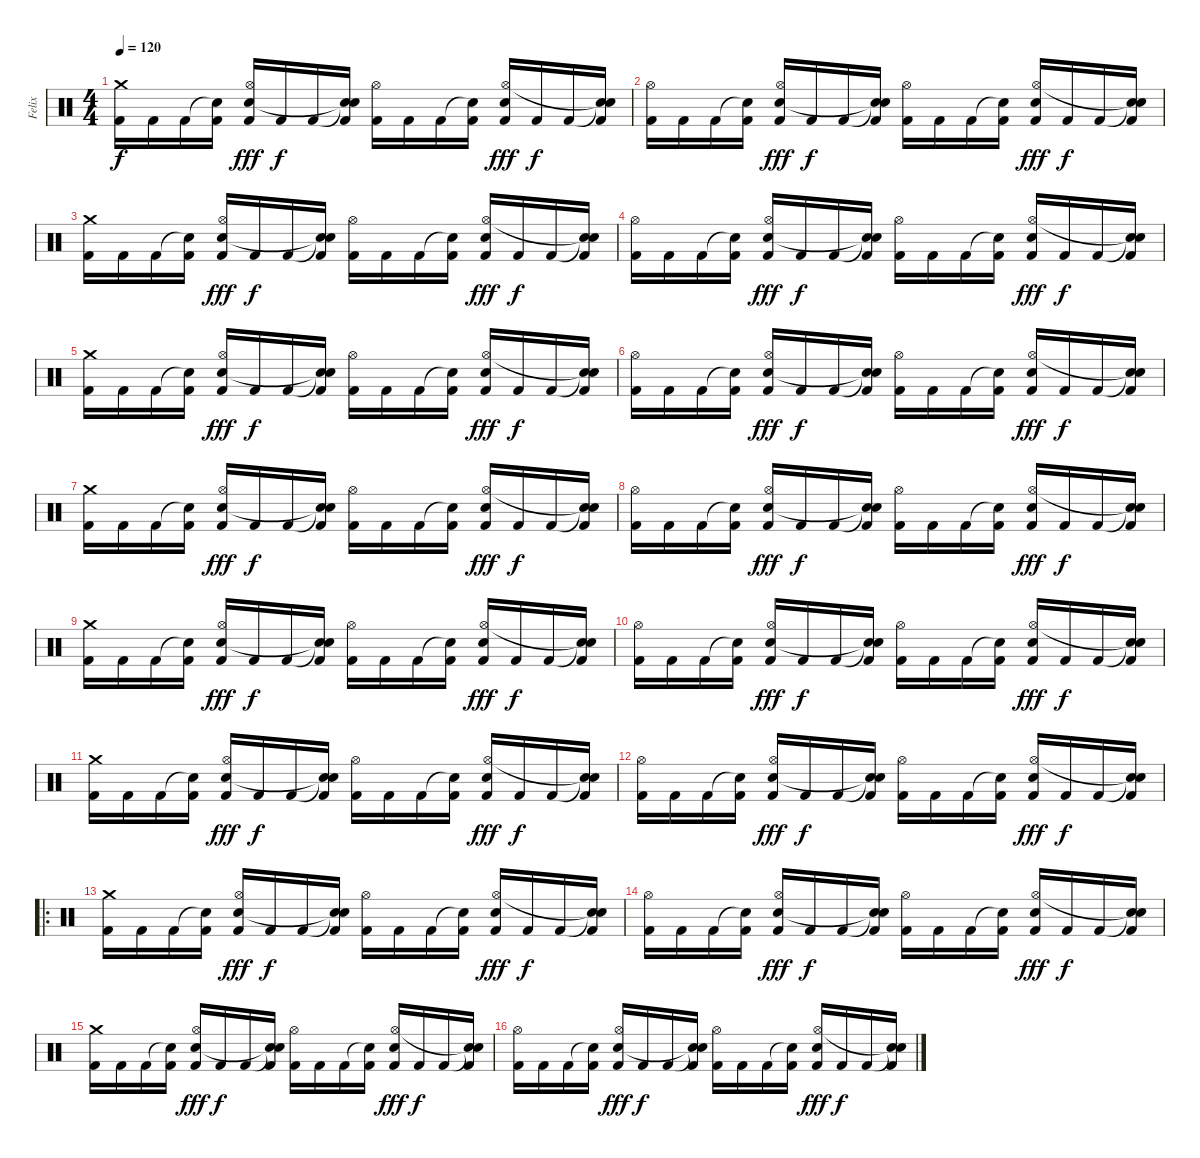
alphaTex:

\track ("Felix" "Felix") {instrument percussion}
\staff {score}
\articulation defaults
\ts (4 4)
\tempo 120
\clef neutral
\ks c
("Crash medium (hit)" "Kick (hit) 2").16{dy f} "Kick (hit) 2".16 "Kick (hit) 2".16 ("Snare (hit)"{t} "Kick (hit) 2").16 ("Hi-Hat (open)" "Electric Snare (hit)" "Kick (hit) 2").16{dy fff} "Kick (hit) 2".16{dy f} "Kick (hit) 2".16 ("Snare (hit)"{t} "Snare (hit)"{t} "Kick (hit) 2").16 ("Hi-Hat (open)" "Kick (hit) 2").16 "Kick (hit) 2".16 "Kick (hit) 2".16 ("Snare (hit)"{t} "Kick (hit) 2").16 ("Electric Snare (hit)" "Hi-Hat (open)" "Kick (hit) 2").16{dy fff} "Kick (hit) 2".16{dy f} "Kick (hit) 2".16 ("Snare (hit)"{t} "Snare (hit)"{t} "Kick (hit) 2").16 |
("Hi-Hat (open)" "Kick (hit) 2").16 "Kick (hit) 2".16 "Kick (hit) 2".16 ("Snare (hit)"{t} "Kick (hit) 2").16 ("Hi-Hat (open)" "Electric Snare (hit)" "Kick (hit) 2").16{dy fff} "Kick (hit) 2".16{dy f} "Kick (hit) 2".16 ("Snare (hit)"{t} "Snare (hit)"{t} "Kick (hit) 2").16 ("Hi-Hat (open)" "Kick (hit) 2").16 "Kick (hit) 2".16 "Kick (hit) 2".16 ("Snare (hit)"{t} "Kick (hit) 2").16 ("Electric Snare (hit)" "Hi-Hat (open)" "Kick (hit) 2").16{dy fff} "Kick (hit) 2".16{dy f} "Kick (hit) 2".16 ("Snare (hit)"{t} "Snare (hit)"{t} "Kick (hit) 2").16 |
("Crash medium (hit)" "Kick (hit) 2").16 "Kick (hit) 2".16 "Kick (hit) 2".16 ("Snare (hit)"{t} "Kick (hit) 2").16 ("Hi-Hat (open)" "Electric Snare (hit)" "Kick (hit) 2").16{dy fff} "Kick (hit) 2".16{dy f} "Kick (hit) 2".16 ("Snare (hit)"{t} "Snare (hit)"{t} "Kick (hit) 2").16 ("Hi-Hat (open)" "Kick (hit) 2").16 "Kick (hit) 2".16 "Kick (hit) 2".16 ("Snare (hit)"{t} "Kick (hit) 2").16 ("Electric Snare (hit)" "Hi-Hat (open)" "Kick (hit) 2").16{dy fff} "Kick (hit) 2".16{dy f} "Kick (hit) 2".16 ("Snare (hit)"{t} "Snare (hit)"{t} "Kick (hit) 2").16 |
("Hi-Hat (open)" "Kick (hit) 2").16 "Kick (hit) 2".16 "Kick (hit) 2".16 ("Snare (hit)"{t} "Kick (hit) 2").16 ("Hi-Hat (open)" "Electric Snare (hit)" "Kick (hit) 2").16{dy fff} "Kick (hit) 2".16{dy f} "Kick (hit) 2".16 ("Snare (hit)"{t} "Snare (hit)"{t} "Kick (hit) 2").16 ("Hi-Hat (open)" "Kick (hit) 2").16 "Kick (hit) 2".16 "Kick (hit) 2".16 ("Snare (hit)"{t} "Kick (hit) 2").16 ("Electric Snare (hit)" "Hi-Hat (open)" "Kick (hit) 2").16{dy fff} "Kick (hit) 2".16{dy f} "Kick (hit) 2".16 ("Snare (hit)"{t} "Snare (hit)"{t} "Kick (hit) 2").16 |
("Crash medium (hit)" "Kick (hit) 2").16 "Kick (hit) 2".16 "Kick (hit) 2".16 ("Snare (hit)"{t} "Kick (hit) 2").16 ("Hi-Hat (open)" "Electric Snare (hit)" "Kick (hit) 2").16{dy fff} "Kick (hit) 2".16{dy f} "Kick (hit) 2".16 ("Snare (hit)"{t} "Snare (hit)"{t} "Kick (hit) 2").16 ("Hi-Hat (open)" "Kick (hit) 2").16 "Kick (hit) 2".16 "Kick (hit) 2".16 ("Snare (hit)"{t} "Kick (hit) 2").16 ("Electric Snare (hit)" "Hi-Hat (open)" "Kick (hit) 2").16{dy fff} "Kick (hit) 2".16{dy f} "Kick (hit) 2".16 ("Snare (hit)"{t} "Snare (hit)"{t} "Kick (hit) 2").16 |
("Hi-Hat (open)" "Kick (hit) 2").16 "Kick (hit) 2".16 "Kick (hit) 2".16 ("Snare (hit)"{t} "Kick (hit) 2").16 ("Hi-Hat (open)" "Electric Snare (hit)" "Kick (hit) 2").16{dy fff} "Kick (hit) 2".16{dy f} "Kick (hit) 2".16 ("Snare (hit)"{t} "Snare (hit)"{t} "Kick (hit) 2").16 ("Hi-Hat (open)" "Kick (hit) 2").16 "Kick (hit) 2".16 "Kick (hit) 2".16 ("Snare (hit)"{t} "Kick (hit) 2").16 ("Electric Snare (hit)" "Hi-Hat (open)" "Kick (hit) 2").16{dy fff} "Kick (hit) 2".16{dy f} "Kick (hit) 2".16 ("Snare (hit)"{t} "Snare (hit)"{t} "Kick (hit) 2").16 |
("Crash medium (hit)" "Kick (hit) 2").16 "Kick (hit) 2".16 "Kick (hit) 2".16 ("Snare (hit)"{t} "Kick (hit) 2").16 ("Hi-Hat (open)" "Electric Snare (hit)" "Kick (hit) 2").16{dy fff} "Kick (hit) 2".16{dy f} "Kick (hit) 2".16 ("Snare (hit)"{t} "Snare (hit)"{t} "Kick (hit) 2").16 ("Hi-Hat (open)" "Kick (hit) 2").16 "Kick (hit) 2".16 "Kick (hit) 2".16 ("Snare (hit)"{t} "Kick (hit) 2").16 ("Electric Snare (hit)" "Hi-Hat (open)" "Kick (hit) 2").16{dy fff} "Kick (hit) 2".16{dy f} "Kick (hit) 2".16 ("Snare (hit)"{t} "Snare (hit)"{t} "Kick (hit) 2").16 |
("Hi-Hat (open)" "Kick (hit) 2").16 "Kick (hit) 2".16 "Kick (hit) 2".16 ("Snare (hit)"{t} "Kick (hit) 2").16 ("Hi-Hat (open)" "Electric Snare (hit)" "Kick (hit) 2").16{dy fff} "Kick (hit) 2".16{dy f} "Kick (hit) 2".16 ("Snare (hit)"{t} "Snare (hit)"{t} "Kick (hit) 2").16 ("Hi-Hat (open)" "Kick (hit) 2").16 "Kick (hit) 2".16 "Kick (hit) 2".16 ("Snare (hit)"{t} "Kick (hit) 2").16 ("Electric Snare (hit)" "Hi-Hat (open)" "Kick (hit) 2").16{dy fff} "Kick (hit) 2".16{dy f} "Kick (hit) 2".16 ("Snare (hit)"{t} "Snare (hit)"{t} "Kick (hit) 2").16 |
("Crash medium (hit)" "Kick (hit) 2").16 "Kick (hit) 2".16 "Kick (hit) 2".16 ("Snare (hit)"{t} "Kick (hit) 2").16 ("Hi-Hat (open)" "Electric Snare (hit)" "Kick (hit) 2").16{dy fff} "Kick (hit) 2".16{dy f} "Kick (hit) 2".16 ("Snare (hit)"{t} "Snare (hit)"{t} "Kick (hit) 2").16 ("Hi-Hat (open)" "Kick (hit) 2").16 "Kick (hit) 2".16 "Kick (hit) 2".16 ("Snare (hit)"{t} "Kick (hit) 2").16 ("Electric Snare (hit)" "Hi-Hat (open)" "Kick (hit) 2").16{dy fff} "Kick (hit) 2".16{dy f} "Kick (hit) 2".16 ("Snare (hit)"{t} "Snare (hit)"{t} "Kick (hit) 2").16 |
("Hi-Hat (open)" "Kick (hit) 2").16 "Kick (hit) 2".16 "Kick (hit) 2".16 ("Snare (hit)"{t} "Kick (hit) 2").16 ("Hi-Hat (open)" "Electric Snare (hit)" "Kick (hit) 2").16{dy fff} "Kick (hit) 2".16{dy f} "Kick (hit) 2".16 ("Snare (hit)"{t} "Snare (hit)"{t} "Kick (hit) 2").16 ("Hi-Hat (open)" "Kick (hit) 2").16 "Kick (hit) 2".16 "Kick (hit) 2".16 ("Snare (hit)"{t} "Kick (hit) 2").16 ("Electric Snare (hit)" "Hi-Hat (open)" "Kick (hit) 2").16{dy fff} "Kick (hit) 2".16{dy f} "Kick (hit) 2".16 ("Snare (hit)"{t} "Snare (hit)"{t} "Kick (hit) 2").16 |
("Crash medium (hit)" "Kick (hit) 2").16 "Kick (hit) 2".16 "Kick (hit) 2".16 ("Snare (hit)"{t} "Kick (hit) 2").16 ("Hi-Hat (open)" "Electric Snare (hit)" "Kick (hit) 2").16{dy fff} "Kick (hit) 2".16{dy f} "Kick (hit) 2".16 ("Snare (hit)"{t} "Snare (hit)"{t} "Kick (hit) 2").16 ("Hi-Hat (open)" "Kick (hit) 2").16 "Kick (hit) 2".16 "Kick (hit) 2".16 ("Snare (hit)"{t} "Kick (hit) 2").16 ("Electric Snare (hit)" "Hi-Hat (open)" "Kick (hit) 2").16{dy fff} "Kick (hit) 2".16{dy f} "Kick (hit) 2".16 ("Snare (hit)"{t} "Snare (hit)"{t} "Kick (hit) 2").16 |
("Hi-Hat (open)" "Kick (hit) 2").16 "Kick (hit) 2".16 "Kick (hit) 2".16 ("Snare (hit)"{t} "Kick (hit) 2").16 ("Hi-Hat (open)" "Electric Snare (hit)" "Kick (hit) 2").16{dy fff} "Kick (hit) 2".16{dy f} "Kick (hit) 2".16 ("Snare (hit)"{t} "Snare (hit)"{t} "Kick (hit) 2").16 ("Hi-Hat (open)" "Kick (hit) 2").16 "Kick (hit) 2".16 "Kick (hit) 2".16 ("Snare (hit)"{t} "Kick (hit) 2").16 ("Electric Snare (hit)" "Hi-Hat (open)" "Kick (hit) 2").16{dy fff} "Kick (hit) 2".16{dy f} "Kick (hit) 2".16 ("Snare (hit)"{t} "Snare (hit)"{t} "Kick (hit) 2").16 |
\ro
("Crash medium (hit)" "Kick (hit) 2").16 "Kick (hit) 2".16 "Kick (hit) 2".16 ("Snare (hit)"{t} "Kick (hit) 2").16 ("Hi-Hat (open)" "Electric Snare (hit)" "Kick (hit) 2").16{dy fff} "Kick (hit) 2".16{dy f} "Kick (hit) 2".16 ("Snare (hit)"{t} "Snare (hit)"{t} "Kick (hit) 2").16 ("Hi-Hat (open)" "Kick (hit) 2").16 "Kick (hit) 2".16 "Kick (hit) 2".16 ("Snare (hit)"{t} "Kick (hit) 2").16 ("Electric Snare (hit)" "Hi-Hat (open)" "Kick (hit) 2").16{dy fff} "Kick (hit) 2".16{dy f} "Kick (hit) 2".16 ("Snare (hit)"{t} "Snare (hit)"{t} "Kick (hit) 2").16 |
("Hi-Hat (open)" "Kick (hit) 2").16 "Kick (hit) 2".16 "Kick (hit) 2".16 ("Snare (hit)"{t} "Kick (hit) 2").16 ("Hi-Hat (open)" "Electric Snare (hit)" "Kick (hit) 2").16{dy fff} "Kick (hit) 2".16{dy f} "Kick (hit) 2".16 ("Snare (hit)"{t} "Snare (hit)"{t} "Kick (hit) 2").16 ("Hi-Hat (open)" "Kick (hit) 2").16 "Kick (hit) 2".16 "Kick (hit) 2".16 ("Snare (hit)"{t} "Kick (hit) 2").16 ("Electric Snare (hit)" "Hi-Hat (open)" "Kick (hit) 2").16{dy fff} "Kick (hit) 2".16{dy f} "Kick (hit) 2".16 ("Snare (hit)"{t} "Snare (hit)"{t} "Kick (hit) 2").16 |
("Crash medium (hit)" "Kick (hit) 2").16 "Kick (hit) 2".16 "Kick (hit) 2".16 ("Snare (hit)"{t} "Kick (hit) 2").16 ("Hi-Hat (open)" "Electric Snare (hit)" "Kick (hit) 2").16{dy fff} "Kick (hit) 2".16{dy f} "Kick (hit) 2".16 ("Snare (hit)"{t} "Snare (hit)"{t} "Kick (hit) 2").16 ("Hi-Hat (open)" "Kick (hit) 2").16 "Kick (hit) 2".16 "Kick (hit) 2".16 ("Snare (hit)"{t} "Kick (hit) 2").16 ("Electric Snare (hit)" "Hi-Hat (open)" "Kick (hit) 2").16{dy fff} "Kick (hit) 2".16{dy f} "Kick (hit) 2".16 ("Snare (hit)"{t} "Snare (hit)"{t} "Kick (hit) 2").16 |
("Hi-Hat (open)" "Kick (hit) 2").16 "Kick (hit) 2".16 "Kick (hit) 2".16 ("Snare (hit)"{t} "Kick (hit) 2").16 ("Hi-Hat (open)" "Electric Snare (hit)" "Kick (hit) 2").16{dy fff} "Kick (hit) 2".16{dy f} "Kick (hit) 2".16 ("Snare (hit)"{t} "Snare (hit)"{t} "Kick (hit) 2").16 ("Hi-Hat (open)" "Kick (hit) 2").16 "Kick (hit) 2".16 "Kick (hit) 2".16 ("Snare (hit)"{t} "Kick (hit) 2").16 ("Electric Snare (hit)" "Hi-Hat (open)" "Kick (hit) 2").16{dy fff} "Kick (hit) 2".16{dy f} "Kick (hit) 2".16 ("Snare (hit)"{t} "Snare (hit)"{t} "Kick (hit) 2").16
